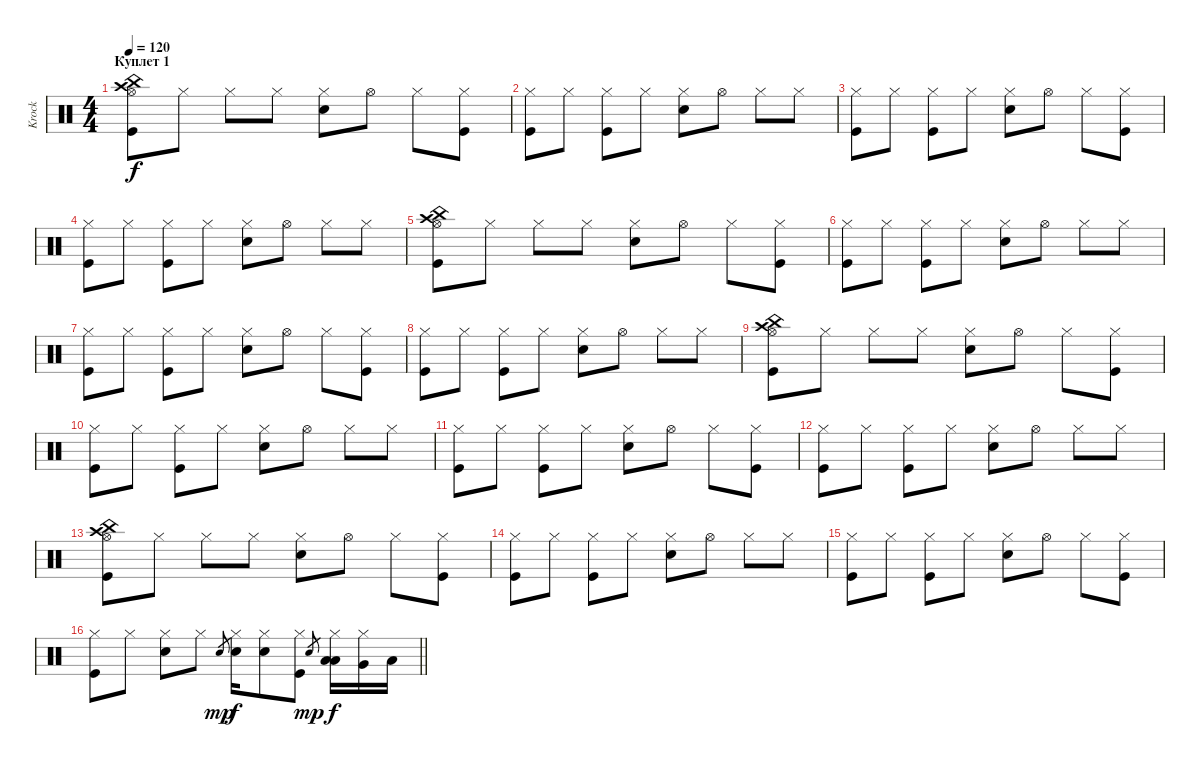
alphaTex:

\track ("Krock" "Krock") {instrument percussion}
\staff {score}
\articulation defaults
\ts (4 4)
\section ("" "Куплет 1")
\tempo 120
\clef neutral
\ks c
("China (hit)" "Hi-Hat (open)" "Crash high (hit)" "Kick (hit)").8{dy f} "Hi-Hat (closed)".8 "Hi-Hat (closed)".8 "Hi-Hat (closed)".8 ("Hi-Hat (closed)" "Snare (hit) 2").8 "Hi-Hat (open)".8 "Hi-Hat (closed)".8 ("Hi-Hat (closed)" "Kick (hit)").8 |
("Hi-Hat (closed)" "Kick (hit)").8 "Hi-Hat (closed)".8 ("Hi-Hat (closed)" "Kick (hit)").8 "Hi-Hat (closed)".8 ("Hi-Hat (closed)" "Snare (hit) 2").8 "Hi-Hat (open)".8 "Hi-Hat (closed)".8 "Hi-Hat (closed)".8 |
("Hi-Hat (closed)" "Kick (hit)").8 "Hi-Hat (closed)".8 ("Hi-Hat (closed)" "Kick (hit)").8 "Hi-Hat (closed)".8 ("Hi-Hat (closed)" "Snare (hit) 2").8 "Hi-Hat (open)".8 "Hi-Hat (closed)".8 ("Hi-Hat (closed)" "Kick (hit)").8 |
("Hi-Hat (closed)" "Kick (hit)").8 "Hi-Hat (closed)".8 ("Hi-Hat (closed)" "Kick (hit)").8 "Hi-Hat (closed)".8 ("Hi-Hat (closed)" "Snare (hit) 2").8 "Hi-Hat (open)".8 "Hi-Hat (closed)".8 "Hi-Hat (closed)".8 |
("China (hit)" "Hi-Hat (open)" "Crash high (hit)" "Kick (hit)").8 "Hi-Hat (closed)".8 "Hi-Hat (closed)".8 "Hi-Hat (closed)".8 ("Hi-Hat (closed)" "Snare (hit) 2").8 "Hi-Hat (open)".8 "Hi-Hat (closed)".8 ("Hi-Hat (closed)" "Kick (hit)").8 |
("Hi-Hat (closed)" "Kick (hit)").8 "Hi-Hat (closed)".8 ("Hi-Hat (closed)" "Kick (hit)").8 "Hi-Hat (closed)".8 ("Hi-Hat (closed)" "Snare (hit) 2").8 "Hi-Hat (open)".8 "Hi-Hat (closed)".8 "Hi-Hat (closed)".8 |
("Hi-Hat (closed)" "Kick (hit)").8 "Hi-Hat (closed)".8 ("Hi-Hat (closed)" "Kick (hit)").8 "Hi-Hat (closed)".8 ("Hi-Hat (closed)" "Snare (hit) 2").8 "Hi-Hat (open)".8 "Hi-Hat (closed)".8 ("Hi-Hat (closed)" "Kick (hit)").8 |
("Hi-Hat (closed)" "Kick (hit)").8 "Hi-Hat (closed)".8 ("Hi-Hat (closed)" "Kick (hit)").8 "Hi-Hat (closed)".8 ("Hi-Hat (closed)" "Snare (hit) 2").8 "Hi-Hat (open)".8 "Hi-Hat (closed)".8 "Hi-Hat (closed)".8 |
("China (hit)" "Hi-Hat (open)" "Crash high (hit)" "Kick (hit)").8 "Hi-Hat (closed)".8 "Hi-Hat (closed)".8 "Hi-Hat (closed)".8 ("Hi-Hat (closed)" "Snare (hit) 2").8 "Hi-Hat (open)".8 "Hi-Hat (closed)".8 ("Hi-Hat (closed)" "Kick (hit)").8 |
("Hi-Hat (closed)" "Kick (hit)").8 "Hi-Hat (closed)".8 ("Hi-Hat (closed)" "Kick (hit)").8 "Hi-Hat (closed)".8 ("Hi-Hat (closed)" "Snare (hit) 2").8 "Hi-Hat (open)".8 "Hi-Hat (closed)".8 "Hi-Hat (closed)".8 |
("Hi-Hat (closed)" "Kick (hit)").8 "Hi-Hat (closed)".8 ("Hi-Hat (closed)" "Kick (hit)").8 "Hi-Hat (closed)".8 ("Hi-Hat (closed)" "Snare (hit) 2").8 "Hi-Hat (open)".8 "Hi-Hat (closed)".8 ("Hi-Hat (closed)" "Kick (hit)").8 |
("Hi-Hat (closed)" "Kick (hit)").8 "Hi-Hat (closed)".8 ("Hi-Hat (closed)" "Kick (hit)").8 "Hi-Hat (closed)".8 ("Hi-Hat (closed)" "Snare (hit) 2").8 "Hi-Hat (open)".8 "Hi-Hat (closed)".8 "Hi-Hat (closed)".8 |
("China (hit)" "Hi-Hat (open)" "Crash high (hit)" "Kick (hit)").8 "Hi-Hat (closed)".8 "Hi-Hat (closed)".8 "Hi-Hat (closed)".8 ("Hi-Hat (closed)" "Snare (hit) 2").8 "Hi-Hat (open)".8 "Hi-Hat (closed)".8 ("Hi-Hat (closed)" "Kick (hit)").8 |
("Hi-Hat (closed)" "Kick (hit)").8 "Hi-Hat (closed)".8 ("Hi-Hat (closed)" "Kick (hit)").8 "Hi-Hat (closed)".8 ("Hi-Hat (closed)" "Snare (hit) 2").8 "Hi-Hat (open)".8 "Hi-Hat (closed)".8 "Hi-Hat (closed)".8 |
("Hi-Hat (closed)" "Kick (hit)").8 "Hi-Hat (closed)".8 ("Hi-Hat (closed)" "Kick (hit)").8 "Hi-Hat (closed)".8 ("Hi-Hat (closed)" "Snare (hit) 2").8 "Hi-Hat (open)".8 "Hi-Hat (closed)".8 ("Hi-Hat (closed)" "Kick (hit)").8 |
\barLineRight lightlight
("Hi-Hat (closed)" "Kick (hit)").8 "Hi-Hat (closed)".8 ("Hi-Hat (closed)" "Snare (hit) 2").8 "Hi-Hat (closed)".8 "Snare (hit) 2".8{gr dy mp} ("Hi-Hat (closed)" "Snare (hit) 2").16{dy f} ("Hi-Hat (closed)" "Snare (hit) 2").8 ("Hi-Hat (closed)" "Kick (hit)").8 "Snare (hit) 2".8{gr dy mp} ("Hi-Hat (closed)" "Low Floor Tom (hit)" "Low Floor Tom (hit)").16{dy f} ("Hi-Hat (closed)" "Very Low Tom (hit)").16 "Low Tom (hit)".16
